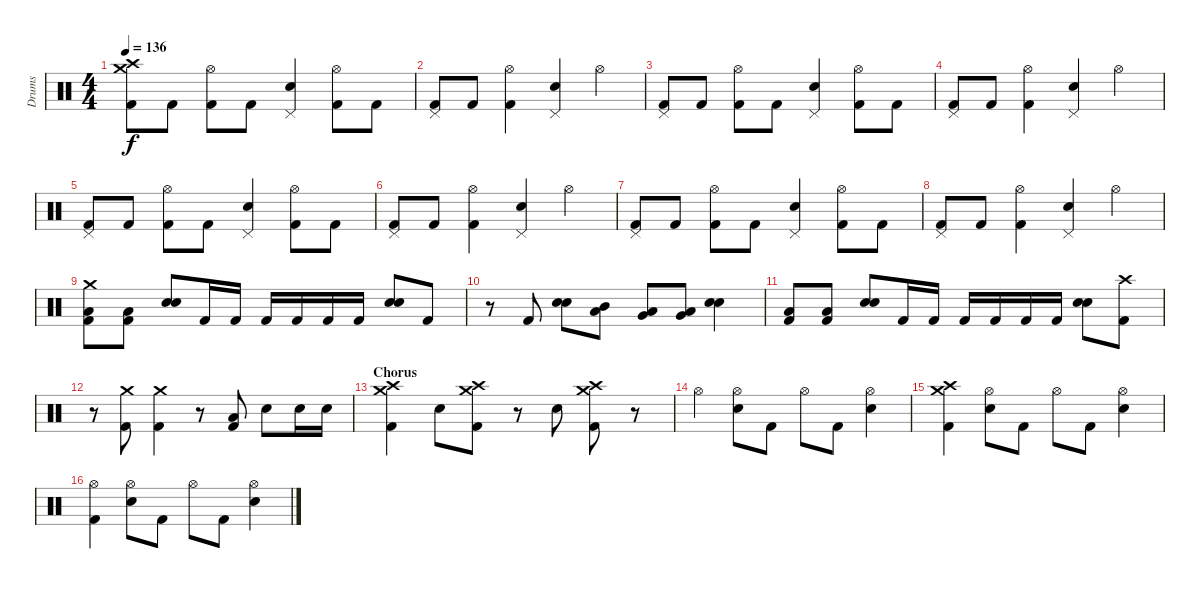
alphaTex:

\track ("Drums" "Drums") {instrument percussion}
\staff {score}
\articulation defaults
\ts (4 4)
\tempo 136
\clef neutral
\ks c
("Crash high (hit)" "Crash medium (hit)" "Kick (hit) 2").8{dy f} "Kick (hit) 2".8 ("Hi-Hat (open)" "Kick (hit) 2").8 "Kick (hit) 2".8 ("Pedal Hi-Hat (hit)" "Electric Snare (hit)").4 ("Hi-Hat (open)" "Kick (hit) 2").8 "Kick (hit) 2".8 |
("Pedal Hi-Hat (hit)" "Kick (hit) 2").8 "Kick (hit) 2".8 ("Hi-Hat (open)" "Kick (hit) 2").4 ("Pedal Hi-Hat (hit)" "Electric Snare (hit)").4 "Hi-Hat (open)".4 |
("Pedal Hi-Hat (hit)" "Kick (hit) 2").8 "Kick (hit) 2".8 ("Hi-Hat (open)" "Kick (hit) 2").8 "Kick (hit) 2".8 ("Pedal Hi-Hat (hit)" "Electric Snare (hit)").4 ("Hi-Hat (open)" "Kick (hit) 2").8 "Kick (hit) 2".8 |
("Pedal Hi-Hat (hit)" "Kick (hit) 2").8 "Kick (hit) 2".8 ("Hi-Hat (open)" "Kick (hit) 2").4 ("Pedal Hi-Hat (hit)" "Electric Snare (hit)").4 "Hi-Hat (open)".4 |
("Pedal Hi-Hat (hit)" "Kick (hit) 2").8 "Kick (hit) 2".8 ("Hi-Hat (open)" "Kick (hit) 2").8 "Kick (hit) 2".8 ("Pedal Hi-Hat (hit)" "Electric Snare (hit)").4 ("Hi-Hat (open)" "Kick (hit) 2").8 "Kick (hit) 2".8 |
("Pedal Hi-Hat (hit)" "Kick (hit) 2").8 "Kick (hit) 2".8 ("Hi-Hat (open)" "Kick (hit) 2").4 ("Pedal Hi-Hat (hit)" "Electric Snare (hit)").4 "Hi-Hat (open)".4 |
("Pedal Hi-Hat (hit)" "Kick (hit) 2").8 "Kick (hit) 2".8 ("Hi-Hat (open)" "Kick (hit) 2").8 "Kick (hit) 2".8 ("Pedal Hi-Hat (hit)" "Electric Snare (hit)").4 ("Hi-Hat (open)" "Kick (hit) 2").8 "Kick (hit) 2".8 |
("Pedal Hi-Hat (hit)" "Kick (hit) 2").8 "Kick (hit) 2".8 ("Hi-Hat (open)" "Kick (hit) 2").4 ("Pedal Hi-Hat (hit)" "Electric Snare (hit)").4 "Hi-Hat (open)".4 |
("Crash medium (hit)" "Low Tom (hit)" "Kick (hit) 2").8 ("Low Tom (hit)" "Kick (hit) 2").8 ("Electric Snare (hit)" "Electric Snare (hit)").8 "Kick (hit) 2".16 "Kick (hit) 2".16 "Kick (hit) 2".16 "Kick (hit) 2".16 "Kick (hit) 2".16 "Kick (hit) 2".16 ("Electric Snare (hit)" "Electric Snare (hit)").8 "Kick (hit) 2".8 |
r.8 "Kick (hit) 2".8 ("Electric Snare (hit)" "Electric Snare (hit)").8 ("Mid Tom (hit)" "Low Tom (hit)").8 ("Low Tom (hit)" "Very Low Tom (hit)").8 ("Very Low Tom (hit)" "Low Floor Tom (hit)").8 ("Electric Snare (hit)" "Electric Snare (hit)").4 |
("Low Tom (hit)" "Kick (hit) 2").8 ("Low Tom (hit)" "Kick (hit) 2").8 ("Electric Snare (hit)" "Electric Snare (hit)").8 "Kick (hit) 2".16 "Kick (hit) 2".16 "Kick (hit) 2".16 "Kick (hit) 2".16 "Kick (hit) 2".16 "Kick (hit) 2".16 ("Electric Snare (hit)" "Electric Snare (hit)").8 ("Crash high (hit)" "Kick (hit) 2").8 |
r.8 ("Crash medium (hit)" "Kick (hit) 2").8 ("Crash medium (hit)" "Kick (hit) 2").4 r.8 ("Low Tom (hit)" "Kick (hit) 2").8 "Electric Snare (hit)".8 "Electric Snare (hit)".16 "Electric Snare (hit)".16 |
\section ("" "Chorus")
("Crash high (hit)" "Crash medium (hit)" "Kick (hit) 2").4 "Electric Snare (hit)".8 ("Crash high (hit)" "Crash medium (hit)" "Kick (hit) 2").8 r.8 "Electric Snare (hit)".8 ("Crash high (hit)" "Crash medium (hit)" "Kick (hit) 2").8 r.8 |
"Hi-Hat (open)".4 ("Hi-Hat (open)" "Electric Snare (hit)").8 "Kick (hit) 2".8 "Hi-Hat (open)".8 "Kick (hit) 2".8 ("Hi-Hat (open)" "Electric Snare (hit)").4 |
("Crash high (hit)" "Crash medium (hit)" "Kick (hit) 2").4 ("Hi-Hat (open)" "Electric Snare (hit)").8 "Kick (hit) 2".8 "Hi-Hat (open)".8 "Kick (hit) 2".8 ("Hi-Hat (open)" "Electric Snare (hit)").4 |
("Hi-Hat (open)" "Kick (hit) 2").4 ("Hi-Hat (open)" "Electric Snare (hit)").8 "Kick (hit) 2".8 "Hi-Hat (open)".8 "Kick (hit) 2".8 ("Hi-Hat (open)" "Electric Snare (hit)").4
